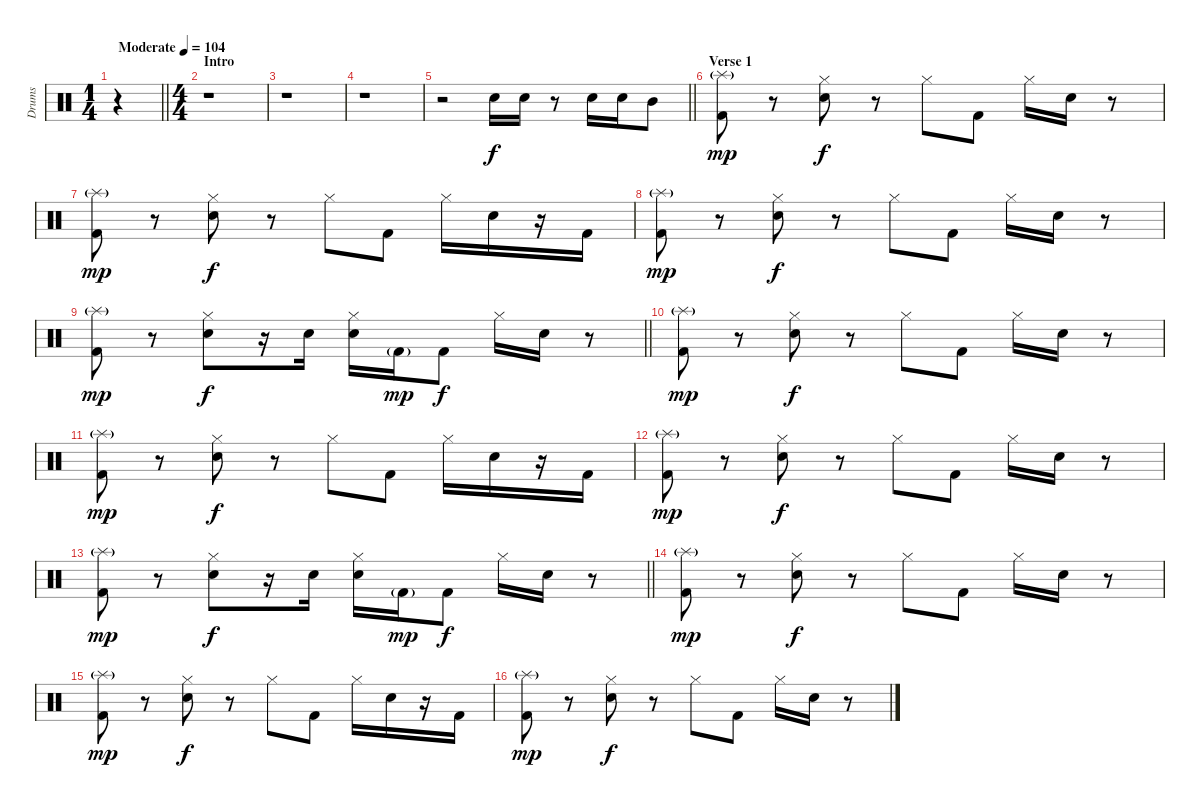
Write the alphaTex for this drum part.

\track ("Drums" "Drums") {instrument percussion}
\staff {score}
\articulation defaults
\ts (1 4)
\tempo (104 "Moderate")
\clef neutral
\barLineRight lightlight
\ks c
r.4{dy f} |
\ts (4 4)
\section ("" "Intro")
r.1 |
r.1 |
r.1 |
\barLineRight lightlight
r.2 "Electric Snare (hit)".16 "Electric Snare (hit)".16 r.8 "Electric Snare (hit)".16 "Electric Snare (hit)".16 "Mid Tom (hit)".8 |
\section ("" "Verse 1")
("Splash (hit)"{g} "Kick (hit) 2").8{dy mp} r.8 ("Hi-Hat (closed)" "Electric Snare (hit)").8{dy f} r.8 "Hi-Hat (closed)".8 "Kick (hit) 2".8 "Hi-Hat (closed)".16 "Electric Snare (hit)".16 r.8 |
("Splash (hit)"{g} "Kick (hit) 2").8{dy mp} r.8 ("Hi-Hat (closed)" "Electric Snare (hit)").8{dy f} r.8 "Hi-Hat (closed)".8 "Kick (hit) 2".8 "Hi-Hat (closed)".16 "Electric Snare (hit)".16 r.16 "Kick (hit) 2".16 |
("Splash (hit)"{g} "Kick (hit) 2").8{dy mp} r.8 ("Hi-Hat (closed)" "Electric Snare (hit)").8{dy f} r.8 "Hi-Hat (closed)".8 "Kick (hit) 2".8 "Hi-Hat (closed)".16 "Electric Snare (hit)".16 r.8 |
\barLineRight lightlight
("Splash (hit)"{g} "Kick (hit) 2").8{dy mp} r.8 ("Hi-Hat (closed)" "Electric Snare (hit)").8{dy f} r.16 "Electric Snare (hit)".16 ("Hi-Hat (closed)" "Electric Snare (hit)").16 "Kick (hit) 2"{g}.16{dy mp} "Kick (hit) 2".8{dy f} "Hi-Hat (closed)".16 "Electric Snare (hit)".16 r.8 |
("Splash (hit)"{g} "Kick (hit) 2").8{dy mp} r.8 ("Hi-Hat (closed)" "Electric Snare (hit)").8{dy f} r.8 "Hi-Hat (closed)".8 "Kick (hit) 2".8 "Hi-Hat (closed)".16 "Electric Snare (hit)".16 r.8 |
("Splash (hit)"{g} "Kick (hit) 2").8{dy mp} r.8 ("Hi-Hat (closed)" "Electric Snare (hit)").8{dy f} r.8 "Hi-Hat (closed)".8 "Kick (hit) 2".8 "Hi-Hat (closed)".16 "Electric Snare (hit)".16 r.16 "Kick (hit) 2".16 |
("Splash (hit)"{g} "Kick (hit) 2").8{dy mp} r.8 ("Hi-Hat (closed)" "Electric Snare (hit)").8{dy f} r.8 "Hi-Hat (closed)".8 "Kick (hit) 2".8 "Hi-Hat (closed)".16 "Electric Snare (hit)".16 r.8 |
\barLineRight lightlight
("Splash (hit)"{g} "Kick (hit) 2").8{dy mp} r.8 ("Hi-Hat (closed)" "Electric Snare (hit)").8{dy f} r.16 "Electric Snare (hit)".16 ("Hi-Hat (closed)" "Electric Snare (hit)").16 "Kick (hit) 2"{g}.16{dy mp} "Kick (hit) 2".8{dy f} "Hi-Hat (closed)".16 "Electric Snare (hit)".16 r.8 |
("Splash (hit)"{g} "Kick (hit) 2").8{dy mp} r.8 ("Hi-Hat (closed)" "Electric Snare (hit)").8{dy f} r.8 "Hi-Hat (closed)".8 "Kick (hit) 2".8 "Hi-Hat (closed)".16 "Electric Snare (hit)".16 r.8 |
("Splash (hit)"{g} "Kick (hit) 2").8{dy mp} r.8 ("Hi-Hat (closed)" "Electric Snare (hit)").8{dy f} r.8 "Hi-Hat (closed)".8 "Kick (hit) 2".8 "Hi-Hat (closed)".16 "Electric Snare (hit)".16 r.16 "Kick (hit) 2".16 |
("Splash (hit)"{g} "Kick (hit) 2").8{dy mp} r.8 ("Hi-Hat (closed)" "Electric Snare (hit)").8{dy f} r.8 "Hi-Hat (closed)".8 "Kick (hit) 2".8 "Hi-Hat (closed)".16 "Electric Snare (hit)".16 r.8
